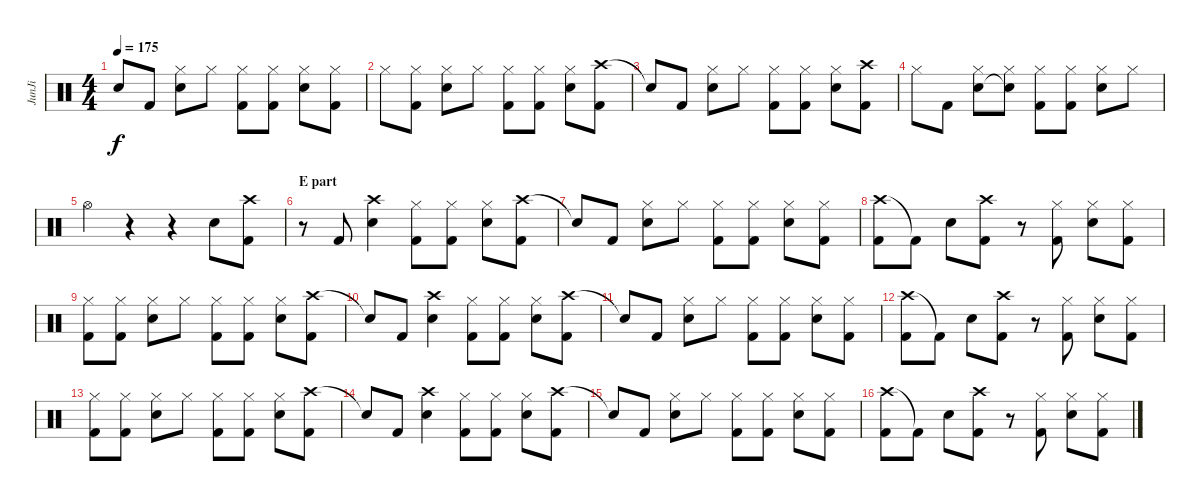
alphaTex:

\track ("JunJi" "JunJi") {instrument percussion}
\staff {score}
\articulation defaults
\ts (4 4)
\tempo 175
\clef neutral
\ks c "Snare (hit)"{t}.8{dy f} "Kick (hit) 2".8
("Hi-Hat (closed)" "Snare (hit) 2").8 "Hi-Hat (closed)".8 ("Hi-Hat (closed)" "Kick (hit) 2").8 ("Hi-Hat (closed)" "Kick (hit) 2").8 ("Hi-Hat (closed)" "Snare (hit) 2").8 ("Hi-Hat (closed)" "Kick (hit) 2").8 |
"Hi-Hat (closed)".8 ("Hi-Hat (closed)" "Kick (hit) 2").8 ("Hi-Hat (closed)" "Snare (hit) 2").8 "Hi-Hat (closed)".8 ("Hi-Hat (closed)" "Kick (hit) 2").8 ("Hi-Hat (closed)" "Kick (hit) 2").8 ("Hi-Hat (closed)" "Snare (hit) 2").8 ("Crash high (hit)" "Kick (hit) 2").8 |
"Snare (hit)"{t}.8 "Kick (hit) 2".8 ("Hi-Hat (closed)" "Snare (hit) 2").8 "Hi-Hat (closed)".8 ("Hi-Hat (closed)" "Kick (hit) 2").8 ("Hi-Hat (closed)" "Kick (hit) 2").8 ("Hi-Hat (closed)" "Snare (hit) 2").8 ("Crash high (hit)" "Kick (hit) 2").8 |
"Hi-Hat (closed)".8 "Kick (hit) 2".8 ("Hi-Hat (closed)" "Snare (hit) 2").8 ("Hi-Hat (closed)" "Snare (hit)"{t}).8 ("Hi-Hat (closed)" "Kick (hit) 2").8 ("Hi-Hat (closed)" "Kick (hit) 2").8 ("Hi-Hat (closed)" "Snare (hit) 2").8 "Hi-Hat (closed)".8 |
"Hi-Hat (open)".4 r.4 r.4 "Snare (hit) 2".8 ("Crash high (hit)" "Kick (hit) 2").8 |
\section ("" "E part")
r.8 "Kick (hit) 2".8 ("Crash high (hit)" "Snare (hit) 2").4 ("Hi-Hat (closed)" "Kick (hit) 2").8 ("Hi-Hat (closed)" "Kick (hit) 2").8 ("Hi-Hat (closed)" "Snare (hit) 2").8 ("Crash high (hit)" "Kick (hit) 2").8 |
"Snare (hit)"{t}.8 "Kick (hit) 2".8 ("Hi-Hat (closed)" "Snare (hit) 2").8 "Hi-Hat (closed)".8 ("Hi-Hat (closed)" "Kick (hit) 2").8 ("Hi-Hat (closed)" "Kick (hit) 2").8 ("Hi-Hat (closed)" "Snare (hit) 2").8 ("Hi-Hat (closed)" "Kick (hit) 2").8 |
("Crash high (hit)" "Kick (hit) 2").8 "Kick (hit) 2"{t}.8 "Snare (hit) 2".8 ("Crash high (hit)" "Kick (hit) 2").8 r.8 ("Hi-Hat (closed)" "Kick (hit) 2").8 ("Hi-Hat (closed)" "Snare (hit) 2").8 ("Hi-Hat (closed)" "Kick (hit) 2").8 |
("Hi-Hat (closed)" "Kick (hit) 2").8 ("Hi-Hat (closed)" "Kick (hit) 2").8 ("Hi-Hat (closed)" "Snare (hit) 2").8 "Hi-Hat (closed)".8 ("Hi-Hat (closed)" "Kick (hit) 2").8 ("Hi-Hat (closed)" "Kick (hit) 2").8 ("Hi-Hat (closed)" "Snare (hit) 2").8 ("Crash high (hit)" "Kick (hit) 2").8 |
"Snare (hit)"{t}.8 "Kick (hit) 2".8 ("Crash high (hit)" "Snare (hit) 2").4 ("Hi-Hat (closed)" "Kick (hit) 2").8 ("Hi-Hat (closed)" "Kick (hit) 2").8 ("Hi-Hat (closed)" "Snare (hit) 2").8 ("Crash high (hit)" "Kick (hit) 2").8 |
"Snare (hit)"{t}.8 "Kick (hit) 2".8 ("Hi-Hat (closed)" "Snare (hit) 2").8 "Hi-Hat (closed)".8 ("Hi-Hat (closed)" "Kick (hit) 2").8 ("Hi-Hat (closed)" "Kick (hit) 2").8 ("Hi-Hat (closed)" "Snare (hit) 2").8 ("Hi-Hat (closed)" "Kick (hit) 2").8 |
("Crash high (hit)" "Kick (hit) 2").8 "Kick (hit) 2"{t}.8 "Snare (hit) 2".8 ("Crash high (hit)" "Kick (hit) 2").8 r.8 ("Hi-Hat (closed)" "Kick (hit) 2").8 ("Hi-Hat (closed)" "Snare (hit) 2").8 ("Hi-Hat (closed)" "Kick (hit) 2").8 |
("Hi-Hat (closed)" "Kick (hit) 2").8 ("Hi-Hat (closed)" "Kick (hit) 2").8 ("Hi-Hat (closed)" "Snare (hit) 2").8 "Hi-Hat (closed)".8 ("Hi-Hat (closed)" "Kick (hit) 2").8 ("Hi-Hat (closed)" "Kick (hit) 2").8 ("Hi-Hat (closed)" "Snare (hit) 2").8 ("Crash high (hit)" "Kick (hit) 2").8 |
"Snare (hit)"{t}.8 "Kick (hit) 2".8 ("Crash high (hit)" "Snare (hit) 2").4 ("Hi-Hat (closed)" "Kick (hit) 2").8 ("Hi-Hat (closed)" "Kick (hit) 2").8 ("Hi-Hat (closed)" "Snare (hit) 2").8 ("Crash high (hit)" "Kick (hit) 2").8 |
"Snare (hit)"{t}.8 "Kick (hit) 2".8 ("Hi-Hat (closed)" "Snare (hit) 2").8 "Hi-Hat (closed)".8 ("Hi-Hat (closed)" "Kick (hit) 2").8 ("Hi-Hat (closed)" "Kick (hit) 2").8 ("Hi-Hat (closed)" "Snare (hit) 2").8 ("Hi-Hat (closed)" "Kick (hit) 2").8 |
("Crash high (hit)" "Kick (hit) 2").8 "Kick (hit) 2"{t}.8 "Snare (hit) 2".8 ("Crash high (hit)" "Kick (hit) 2").8 r.8 ("Hi-Hat (closed)" "Kick (hit) 2").8 ("Hi-Hat (closed)" "Snare (hit) 2").8 ("Hi-Hat (closed)" "Kick (hit) 2").8
